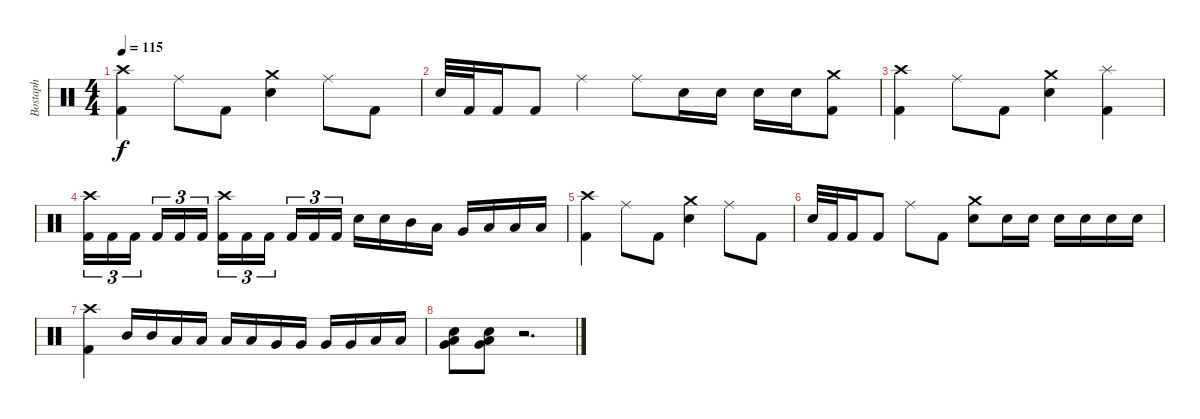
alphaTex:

\track ("Bostaph" "Bostaph") {instrument percussion}
\staff {score}
\articulation defaults
\ts (4 4)
\tempo 115
\clef neutral
\ks c
("Crash high (hit)" "Kick (hit) 2").4{dy f} "Ride (middle)".8 "Kick (hit) 2".8 ("Crash medium (hit)" "Electric Snare (hit)").4 "Ride (middle)".8 "Kick (hit) 2".8 |
"Electric Snare (hit)".32 "Kick (hit) 2".32 "Kick (hit) 2".16 "Kick (hit) 2".8 "Ride (middle)".4 "Ride (middle)".8 "Electric Snare (hit)".16 "Electric Snare (hit)".16 "Electric Snare (hit)".16 "Electric Snare (hit)".16 ("Crash medium (hit)" "Kick (hit) 2").8 |
("Crash high (hit)" "Kick (hit) 2").4 "Ride (middle)".8 "Kick (hit) 2".8 ("Crash medium (hit)" "Electric Snare (hit)").4 ("Splash (hit)" "Kick (hit) 2").4 |
("Crash high (hit)" "Kick (hit) 2").16{tu (3 2)} "Kick (hit) 2".16{tu (3 2)} "Kick (hit) 2".16{tu (3 2)} "Kick (hit) 2".16{tu (3 2)} "Kick (hit) 2".16{tu (3 2)} "Kick (hit) 2".16{tu (3 2)} ("Crash high (hit)" "Kick (hit) 2").16{tu (3 2)} "Kick (hit) 2".16{tu (3 2)} "Kick (hit) 2".16{tu (3 2)} "Kick (hit) 2".16{tu (3 2)} "Kick (hit) 2".16{tu (3 2)} "Kick (hit) 2".16{tu (3 2)} "Electric Snare (hit)".16 "Electric Snare (hit)".16 "Mid Tom (hit)".16 "Low Tom (hit)".16 "Very Low Tom (hit)".16 "Low Floor Tom (hit)".16 "Low Floor Tom (hit)".16 "Low Floor Tom (hit)".16 |
("Crash high (hit)" "Kick (hit) 2").4 "Ride (middle)".8 "Kick (hit) 2".8 ("Crash medium (hit)" "Electric Snare (hit)").4 "Ride (middle)".8 "Kick (hit) 2".8 |
"Electric Snare (hit)".32 "Kick (hit) 2".32 "Kick (hit) 2".16 "Kick (hit) 2".8 "Ride (middle)".8 "Kick (hit) 2".8 ("Crash medium (hit)" "Electric Snare (hit)").8 "Electric Snare (hit)".16 "Electric Snare (hit)".16 "Electric Snare (hit)".16 "Electric Snare (hit)".16 "Electric Snare (hit)".16 "Electric Snare (hit)".16 |
("Crash high (hit)" "Kick (hit) 2").4 "Mid Tom (hit)".16 "Mid Tom (hit)".16 "Low Tom (hit)".16 "Low Tom (hit)".16 "Low Tom (hit)".16 "Low Tom (hit)".16 "Very Low Tom (hit)".16 "Very Low Tom (hit)".16 "Very Low Tom (hit)".16 "Very Low Tom (hit)".16 "Low Floor Tom (hit)".16 "Low Floor Tom (hit)".16 |
("Very Low Tom (hit)" "Low Floor Tom (hit)" "Electric Snare (hit)").8 ("Very Low Tom (hit)" "Low Floor Tom (hit)" "Electric Snare (hit)").8 r.2{d}
